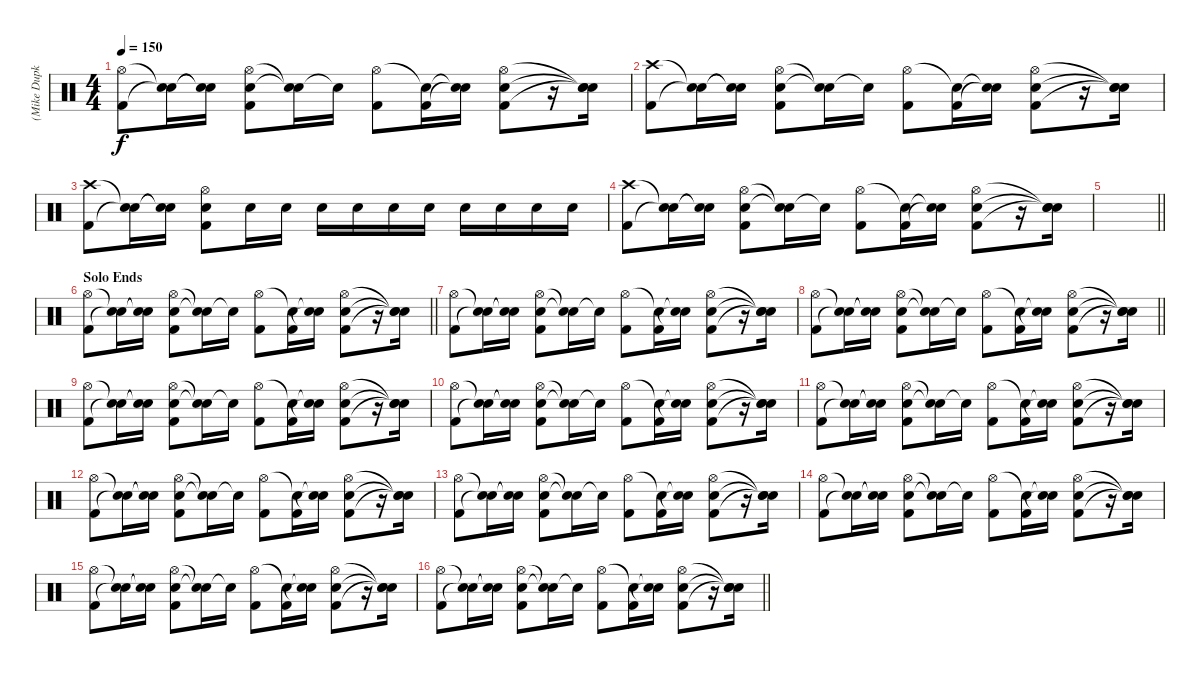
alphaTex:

\track ("(Mike Dupke) Drums" "(Mike Dupk") {instrument percussion}
\staff {score}
\articulation defaults
\ts (4 4)
\tempo 150
\clef neutral
\ks c
("Hi-Hat (open)" "Kick (hit) 2").8{dy f} ("Snare (hit)"{t} "Snare (hit)"{t}).16 ("Snare (hit)"{t} "Snare (hit)"{t}).16 ("Hi-Hat (open)" "Snare (hit) 2" "Kick (hit) 2").8 ("Snare (hit)"{t} "Snare (hit)"{t}).16 "Snare (hit)"{t}.16 ("Hi-Hat (open)" "Kick (hit) 2").8 ("Snare (hit)"{t} "Kick (hit) 2").16 ("Snare (hit)"{t} "Snare (hit)"{t}).16 ("Hi-Hat (open)" "Snare (hit) 2" "Kick (hit) 2").8 r.16 ("Snare (hit)"{t} "Snare (hit)"{t} "Snare (hit)"{t}).16 |
("Crash high (hit)" "Kick (hit) 2").8 ("Snare (hit)"{t} "Snare (hit)"{t}).16 ("Snare (hit)"{t} "Snare (hit)"{t}).16 ("Hi-Hat (open)" "Snare (hit) 2" "Kick (hit) 2").8 ("Snare (hit)"{t} "Snare (hit)"{t}).16 "Snare (hit)"{t}.16 ("Hi-Hat (open)" "Kick (hit) 2").8 ("Snare (hit)"{t} "Kick (hit) 2").16 ("Snare (hit)"{t} "Snare (hit)"{t}).16 ("Hi-Hat (open)" "Snare (hit) 2" "Kick (hit) 2").8 r.16 ("Snare (hit)"{t} "Snare (hit)"{t} "Snare (hit)"{t}).16 |
("Crash high (hit)" "Kick (hit) 2").8 ("Snare (hit)"{t} "Snare (hit)"{t}).16 ("Snare (hit)"{t} "Snare (hit)"{t}).16 ("Hi-Hat (open)" "Snare (hit) 2" "Kick (hit) 2").8 "Snare (hit) 2".16 "Snare (hit) 2".16 "Snare (hit) 2".16 "Snare (hit) 2".16 "Snare (hit) 2".16 "Snare (hit) 2".16 "Snare (hit) 2".16 "Snare (hit) 2".16 "Snare (hit) 2".16 "Snare (hit) 2".16 |
("Crash high (hit)" "Kick (hit) 2").8 ("Snare (hit)"{t} "Snare (hit)"{t}).16 ("Snare (hit)"{t} "Snare (hit)"{t}).16 ("Hi-Hat (open)" "Snare (hit) 2" "Kick (hit) 2").8 ("Snare (hit)"{t} "Snare (hit)"{t}).16 "Snare (hit)"{t}.16 ("Hi-Hat (open)" "Kick (hit) 2").8 ("Snare (hit)"{t} "Kick (hit) 2").16 ("Snare (hit)"{t} "Snare (hit)"{t}).16 ("Hi-Hat (open)" "Snare (hit) 2" "Kick (hit) 2").8 r.16 ("Snare (hit)"{t} "Snare (hit)"{t} "Snare (hit)"{t}).16 |
\barLineRight lightlight
|
\section ("" "Solo Ends")
\barLineRight lightlight
("Hi-Hat (open)" "Kick (hit) 2").8 ("Snare (hit)"{t} "Snare (hit)"{t}).16 ("Snare (hit)"{t} "Snare (hit)"{t}).16 ("Hi-Hat (open)" "Snare (hit) 2" "Kick (hit) 2").8 ("Snare (hit)"{t} "Snare (hit)"{t}).16 "Snare (hit)"{t}.16 ("Hi-Hat (open)" "Kick (hit) 2").8 ("Snare (hit)"{t} "Kick (hit) 2").16 ("Snare (hit)"{t} "Snare (hit)"{t}).16 ("Hi-Hat (open)" "Snare (hit) 2" "Kick (hit) 2").8 r.16 ("Snare (hit)"{t} "Snare (hit)"{t} "Snare (hit)"{t}).16 |
("Hi-Hat (open)" "Kick (hit) 2").8 ("Snare (hit)"{t} "Snare (hit)"{t}).16 ("Snare (hit)"{t} "Snare (hit)"{t}).16 ("Hi-Hat (open)" "Snare (hit) 2" "Kick (hit) 2").8 ("Snare (hit)"{t} "Snare (hit)"{t}).16 "Snare (hit)"{t}.16 ("Hi-Hat (open)" "Kick (hit) 2").8 ("Snare (hit)"{t} "Kick (hit) 2").16 ("Snare (hit)"{t} "Snare (hit)"{t}).16 ("Hi-Hat (open)" "Snare (hit) 2" "Kick (hit) 2").8 r.16 ("Snare (hit)"{t} "Snare (hit)"{t} "Snare (hit)"{t}).16 |
\barLineRight lightlight
("Hi-Hat (open)" "Kick (hit) 2").8 ("Snare (hit)"{t} "Snare (hit)"{t}).16 ("Snare (hit)"{t} "Snare (hit)"{t}).16 ("Hi-Hat (open)" "Snare (hit) 2" "Kick (hit) 2").8 ("Snare (hit)"{t} "Snare (hit)"{t}).16 "Snare (hit)"{t}.16 ("Hi-Hat (open)" "Kick (hit) 2").8 ("Snare (hit)"{t} "Kick (hit) 2").16 ("Snare (hit)"{t} "Snare (hit)"{t}).16 ("Hi-Hat (open)" "Snare (hit) 2" "Kick (hit) 2").8 r.16 ("Snare (hit)"{t} "Snare (hit)"{t} "Snare (hit)"{t}).16 |
("Hi-Hat (open)" "Kick (hit) 2").8 ("Snare (hit)"{t} "Snare (hit)"{t}).16 ("Snare (hit)"{t} "Snare (hit)"{t}).16 ("Hi-Hat (open)" "Snare (hit) 2" "Kick (hit) 2").8 ("Snare (hit)"{t} "Snare (hit)"{t}).16 "Snare (hit)"{t}.16 ("Hi-Hat (open)" "Kick (hit) 2").8 ("Snare (hit)"{t} "Kick (hit) 2").16 ("Snare (hit)"{t} "Snare (hit)"{t}).16 ("Hi-Hat (open)" "Snare (hit) 2" "Kick (hit) 2").8 r.16 ("Snare (hit)"{t} "Snare (hit)"{t} "Snare (hit)"{t}).16 |
("Hi-Hat (open)" "Kick (hit) 2").8 ("Snare (hit)"{t} "Snare (hit)"{t}).16 ("Snare (hit)"{t} "Snare (hit)"{t}).16 ("Hi-Hat (open)" "Snare (hit) 2" "Kick (hit) 2").8 ("Snare (hit)"{t} "Snare (hit)"{t}).16 "Snare (hit)"{t}.16 ("Hi-Hat (open)" "Kick (hit) 2").8 ("Snare (hit)"{t} "Kick (hit) 2").16 ("Snare (hit)"{t} "Snare (hit)"{t}).16 ("Hi-Hat (open)" "Snare (hit) 2" "Kick (hit) 2").8 r.16 ("Snare (hit)"{t} "Snare (hit)"{t} "Snare (hit)"{t}).16 |
("Hi-Hat (open)" "Kick (hit) 2").8 ("Snare (hit)"{t} "Snare (hit)"{t}).16 ("Snare (hit)"{t} "Snare (hit)"{t}).16 ("Hi-Hat (open)" "Snare (hit) 2" "Kick (hit) 2").8 ("Snare (hit)"{t} "Snare (hit)"{t}).16 "Snare (hit)"{t}.16 ("Hi-Hat (open)" "Kick (hit) 2").8 ("Snare (hit)"{t} "Kick (hit) 2").16 ("Snare (hit)"{t} "Snare (hit)"{t}).16 ("Hi-Hat (open)" "Snare (hit) 2" "Kick (hit) 2").8 r.16 ("Snare (hit)"{t} "Snare (hit)"{t} "Snare (hit)"{t}).16 |
("Hi-Hat (open)" "Kick (hit) 2").8 ("Snare (hit)"{t} "Snare (hit)"{t}).16 ("Snare (hit)"{t} "Snare (hit)"{t}).16 ("Hi-Hat (open)" "Snare (hit) 2" "Kick (hit) 2").8 ("Snare (hit)"{t} "Snare (hit)"{t}).16 "Snare (hit)"{t}.16 ("Hi-Hat (open)" "Kick (hit) 2").8 ("Snare (hit)"{t} "Kick (hit) 2").16 ("Snare (hit)"{t} "Snare (hit)"{t}).16 ("Hi-Hat (open)" "Snare (hit) 2" "Kick (hit) 2").8 r.16 ("Snare (hit)"{t} "Snare (hit)"{t} "Snare (hit)"{t}).16 |
("Hi-Hat (open)" "Kick (hit) 2").8 ("Snare (hit)"{t} "Snare (hit)"{t}).16 ("Snare (hit)"{t} "Snare (hit)"{t}).16 ("Hi-Hat (open)" "Snare (hit) 2" "Kick (hit) 2").8 ("Snare (hit)"{t} "Snare (hit)"{t}).16 "Snare (hit)"{t}.16 ("Hi-Hat (open)" "Kick (hit) 2").8 ("Snare (hit)"{t} "Kick (hit) 2").16 ("Snare (hit)"{t} "Snare (hit)"{t}).16 ("Hi-Hat (open)" "Snare (hit) 2" "Kick (hit) 2").8 r.16 ("Snare (hit)"{t} "Snare (hit)"{t} "Snare (hit)"{t}).16 |
("Hi-Hat (open)" "Kick (hit) 2").8 ("Snare (hit)"{t} "Snare (hit)"{t}).16 ("Snare (hit)"{t} "Snare (hit)"{t}).16 ("Hi-Hat (open)" "Snare (hit) 2" "Kick (hit) 2").8 ("Snare (hit)"{t} "Snare (hit)"{t}).16 "Snare (hit)"{t}.16 ("Hi-Hat (open)" "Kick (hit) 2").8 ("Snare (hit)"{t} "Kick (hit) 2").16 ("Snare (hit)"{t} "Snare (hit)"{t}).16 ("Hi-Hat (open)" "Snare (hit) 2" "Kick (hit) 2").8 r.16 ("Snare (hit)"{t} "Snare (hit)"{t} "Snare (hit)"{t}).16 |
("Hi-Hat (open)" "Kick (hit) 2").8 ("Snare (hit)"{t} "Snare (hit)"{t}).16 ("Snare (hit)"{t} "Snare (hit)"{t}).16 ("Hi-Hat (open)" "Snare (hit) 2" "Kick (hit) 2").8 ("Snare (hit)"{t} "Snare (hit)"{t}).16 "Snare (hit)"{t}.16 ("Hi-Hat (open)" "Kick (hit) 2").8 ("Snare (hit)"{t} "Kick (hit) 2").16 ("Snare (hit)"{t} "Snare (hit)"{t}).16 ("Hi-Hat (open)" "Snare (hit) 2" "Kick (hit) 2").8 r.16 ("Snare (hit)"{t} "Snare (hit)"{t} "Snare (hit)"{t}).16 |
\barLineRight lightlight
("Hi-Hat (open)" "Kick (hit) 2").8 ("Snare (hit)"{t} "Snare (hit)"{t}).16 ("Snare (hit)"{t} "Snare (hit)"{t}).16 ("Hi-Hat (open)" "Snare (hit) 2" "Kick (hit) 2").8 ("Snare (hit)"{t} "Snare (hit)"{t}).16 "Snare (hit)"{t}.16 ("Hi-Hat (open)" "Kick (hit) 2").8 ("Snare (hit)"{t} "Kick (hit) 2").16 ("Snare (hit)"{t} "Snare (hit)"{t}).16 ("Hi-Hat (open)" "Snare (hit) 2" "Kick (hit) 2").8 r.16 ("Snare (hit)"{t} "Snare (hit)"{t} "Snare (hit)"{t}).16
